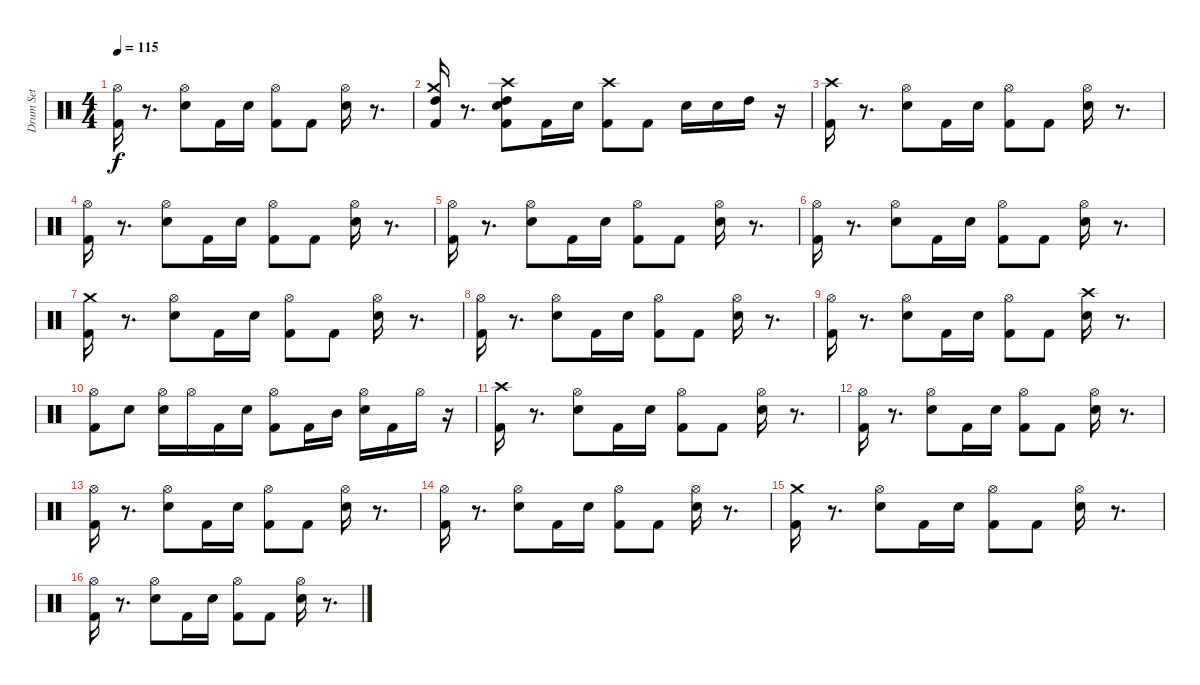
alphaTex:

\track ("Drum Set" "Drum Set") {instrument percussion}
\staff {score}
\articulation defaults
\ts (4 4)
\tempo 115
\clef neutral
\ks c
("Hi-Hat (open)" "Kick (hit) 2").16{dy f} r.8{d} ("Hi-Hat (open)" "Electric Snare (hit)").8 "Kick (hit) 2".16 "Electric Snare (hit)".16 ("Hi-Hat (open)" "Kick (hit) 2").8 "Kick (hit) 2".8 ("Hi-Hat (open)" "Electric Snare (hit)").16 r.8{d} |
("Crash medium (hit)" "High Tom (hit)" "Kick (hit) 2").16 r.8{d} ("Crash high (hit)" "High Tom (hit)" "Electric Snare (hit)" "Kick (hit) 2").8 "Kick (hit) 2".16 "Electric Snare (hit)".16 ("Crash high (hit)" "Kick (hit) 2").8 "Kick (hit) 2".8 "Electric Snare (hit)".16 "Electric Snare (hit)".16 "High Tom (hit)".16 r.16 |
("Crash high (hit)" "Kick (hit) 2").16 r.8{d} ("Hi-Hat (open)" "Electric Snare (hit)").8 "Kick (hit) 2".16 "Electric Snare (hit)".16 ("Hi-Hat (open)" "Kick (hit) 2").8 "Kick (hit) 2".8 ("Hi-Hat (open)" "Electric Snare (hit)").16 r.8{d} |
("Hi-Hat (open)" "Kick (hit) 2").16 r.8{d} ("Hi-Hat (open)" "Electric Snare (hit)").8 "Kick (hit) 2".16 "Electric Snare (hit)".16 ("Hi-Hat (open)" "Kick (hit) 2").8 "Kick (hit) 2".8 ("Hi-Hat (open)" "Electric Snare (hit)").16 r.8{d} |
("Hi-Hat (open)" "Kick (hit) 2").16 r.8{d} ("Hi-Hat (open)" "Electric Snare (hit)").8 "Kick (hit) 2".16 "Electric Snare (hit)".16 ("Hi-Hat (open)" "Kick (hit) 2").8 "Kick (hit) 2".8 ("Hi-Hat (open)" "Electric Snare (hit)").16 r.8{d} |
("Hi-Hat (open)" "Kick (hit) 2").16 r.8{d} ("Hi-Hat (open)" "Electric Snare (hit)").8 "Kick (hit) 2".16 "Electric Snare (hit)".16 ("Hi-Hat (open)" "Kick (hit) 2").8 "Kick (hit) 2".8 ("Hi-Hat (open)" "Electric Snare (hit)").16 r.8{d} |
("Crash medium (hit)" "Kick (hit) 2").16 r.8{d} ("Hi-Hat (open)" "Electric Snare (hit)").8 "Kick (hit) 2".16 "Electric Snare (hit)".16 ("Hi-Hat (open)" "Kick (hit) 2").8 "Kick (hit) 2".8 ("Hi-Hat (open)" "Electric Snare (hit)").16 r.8{d} |
("Hi-Hat (open)" "Kick (hit) 2").16 r.8{d} ("Hi-Hat (open)" "Electric Snare (hit)").8 "Kick (hit) 2".16 "Electric Snare (hit)".16 ("Hi-Hat (open)" "Kick (hit) 2").8 "Kick (hit) 2".8 ("Hi-Hat (open)" "Electric Snare (hit)").16 r.8{d} |
("Hi-Hat (open)" "Kick (hit) 2").16 r.8{d} ("Hi-Hat (open)" "Electric Snare (hit)").8 "Kick (hit) 2".16 "Electric Snare (hit)".16 ("Hi-Hat (open)" "Kick (hit) 2").8 "Kick (hit) 2".8 ("Crash high (hit)" "Electric Snare (hit)").16 r.8{d} |
("Hi-Hat (open)" "Kick (hit) 2").8 "Electric Snare (hit)".8 ("Hi-Hat (open)" "Electric Snare (hit)").16 "Hi-Hat (open)".16 "Kick (hit) 2".16 "Electric Snare (hit)".16 ("Hi-Hat (open)" "Kick (hit) 2").8 "Kick (hit) 2".16 "Mid Tom (hit)".16 ("Hi-Hat (open)" "Electric Snare (hit)").16 "Kick (hit) 2".16 "Hi-Hat (open)".16 r.16 |
("Crash high (hit)" "Kick (hit) 2").16 r.8{d} ("Hi-Hat (open)" "Electric Snare (hit)").8 "Kick (hit) 2".16 "Electric Snare (hit)".16 ("Hi-Hat (open)" "Kick (hit) 2").8 "Kick (hit) 2".8 ("Hi-Hat (open)" "Electric Snare (hit)").16 r.8{d} |
("Hi-Hat (open)" "Kick (hit) 2").16 r.8{d} ("Hi-Hat (open)" "Electric Snare (hit)").8 "Kick (hit) 2".16 "Electric Snare (hit)".16 ("Hi-Hat (open)" "Kick (hit) 2").8 "Kick (hit) 2".8 ("Hi-Hat (open)" "Electric Snare (hit)").16 r.8{d} |
("Hi-Hat (open)" "Kick (hit) 2").16 r.8{d} ("Hi-Hat (open)" "Electric Snare (hit)").8 "Kick (hit) 2".16 "Electric Snare (hit)".16 ("Hi-Hat (open)" "Kick (hit) 2").8 "Kick (hit) 2".8 ("Hi-Hat (open)" "Electric Snare (hit)").16 r.8{d} |
("Hi-Hat (open)" "Kick (hit) 2").16 r.8{d} ("Hi-Hat (open)" "Electric Snare (hit)").8 "Kick (hit) 2".16 "Electric Snare (hit)".16 ("Hi-Hat (open)" "Kick (hit) 2").8 "Kick (hit) 2".8 ("Hi-Hat (open)" "Electric Snare (hit)").16 r.8{d} |
("Crash medium (hit)" "Kick (hit) 2").16 r.8{d} ("Hi-Hat (open)" "Electric Snare (hit)").8 "Kick (hit) 2".16 "Electric Snare (hit)".16 ("Hi-Hat (open)" "Kick (hit) 2").8 "Kick (hit) 2".8 ("Hi-Hat (open)" "Electric Snare (hit)").16 r.8{d} |
("Hi-Hat (open)" "Kick (hit) 2").16 r.8{d} ("Hi-Hat (open)" "Electric Snare (hit)").8 "Kick (hit) 2".16 "Electric Snare (hit)".16 ("Hi-Hat (open)" "Kick (hit) 2").8 "Kick (hit) 2".8 ("Hi-Hat (open)" "Electric Snare (hit)").16 r.8{d}
